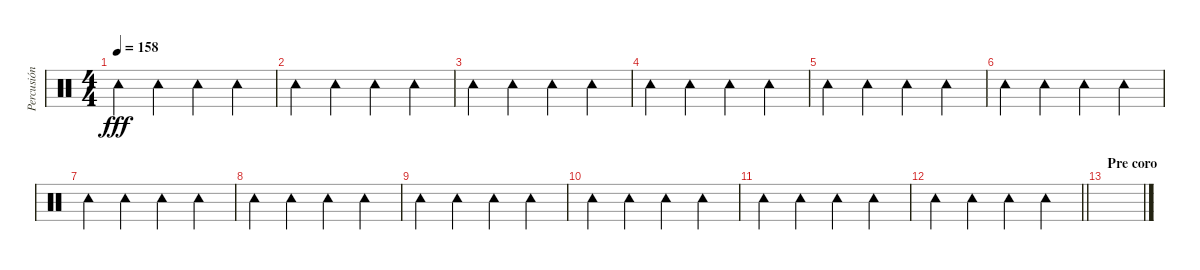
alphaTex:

\track ("Percusión" "Percusión") {instrument percussion}
\staff {score}
\articulation defaults
\ts (4 4)
\tempo 158
\clef neutral
\ks c "Tambourine (hit)".4{dy fff} "Tambourine (hit)".4 "Tambourine (hit)".4 "Tambourine (hit)".4
|
"Tambourine (hit)".4 "Tambourine (hit)".4 "Tambourine (hit)".4 "Tambourine (hit)".4 |
"Tambourine (hit)".4 "Tambourine (hit)".4 "Tambourine (hit)".4 "Tambourine (hit)".4 |
"Tambourine (hit)".4 "Tambourine (hit)".4 "Tambourine (hit)".4 "Tambourine (hit)".4 |
"Tambourine (hit)".4 "Tambourine (hit)".4 "Tambourine (hit)".4 "Tambourine (hit)".4 |
"Tambourine (hit)".4 "Tambourine (hit)".4 "Tambourine (hit)".4 "Tambourine (hit)".4 |
"Tambourine (hit)".4 "Tambourine (hit)".4 "Tambourine (hit)".4 "Tambourine (hit)".4 |
"Tambourine (hit)".4 "Tambourine (hit)".4 "Tambourine (hit)".4 "Tambourine (hit)".4 |
"Tambourine (hit)".4 "Tambourine (hit)".4 "Tambourine (hit)".4 "Tambourine (hit)".4 |
"Tambourine (hit)".4 "Tambourine (hit)".4 "Tambourine (hit)".4 "Tambourine (hit)".4 |
"Tambourine (hit)".4 "Tambourine (hit)".4 "Tambourine (hit)".4 "Tambourine (hit)".4 |
\barLineRight lightlight "Tambourine (hit)".4 "Tambourine (hit)".4 "Tambourine (hit)".4 "Tambourine (hit)".4
|
\section ("" "Pre coro")
